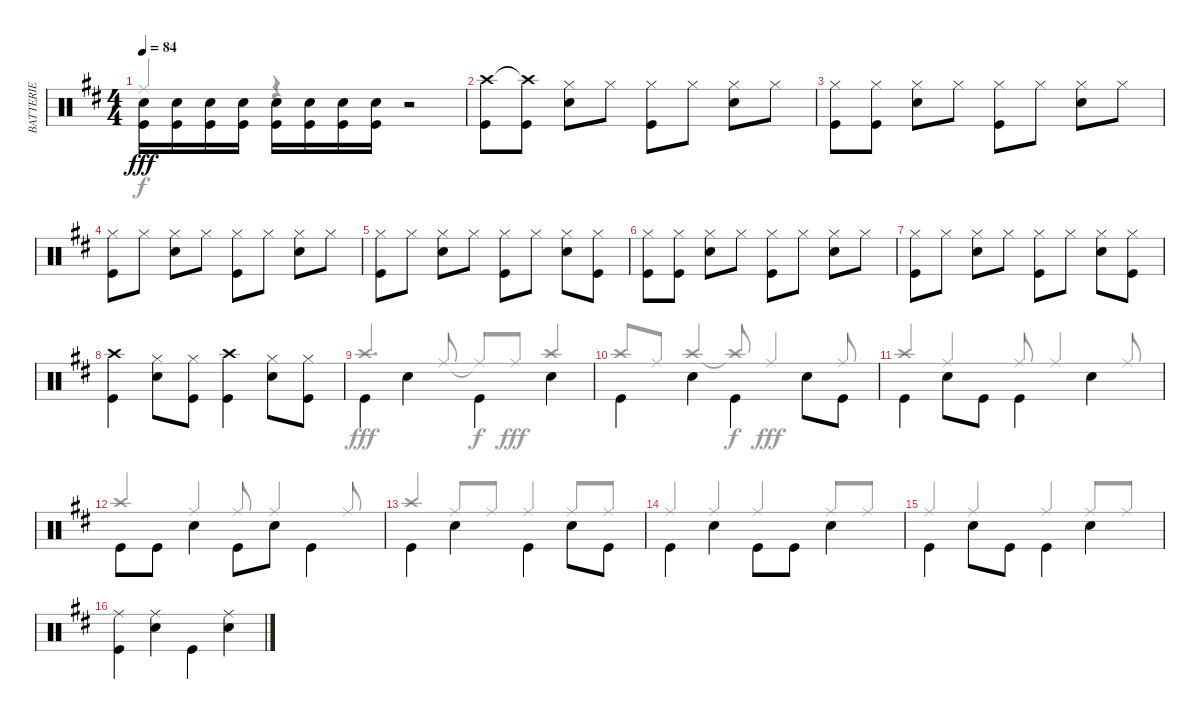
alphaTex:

\track ("BATTERIE" "BATTERIE") {instrument percussion}
\staff {score}
\articulation defaults
\voice
\ts (4 4)
\tempo 84
\clef neutral
\ks d
("Snare (hit) 2" "Kick (hit)").16{dy fff beam Down} ("Snare (hit) 2" "Kick (hit)").16{beam Down} ("Snare (hit) 2" "Kick (hit)").16{beam Down} ("Snare (hit) 2" "Kick (hit)").16{beam Down} ("Snare (hit) 2" "Kick (hit)").16{beam Down} ("Snare (hit) 2" "Kick (hit)").16{beam Down} ("Snare (hit) 2" "Kick (hit)").16{beam Down} ("Snare (hit) 2" "Kick (hit)").16{beam Down} r.2 |
("Crash high (hit)" "Kick (hit)").8 ("Crash high (hit)"{t} "Kick (hit)").8 ("Hi-Hat (closed)" "Snare (hit) 2").8 "Hi-Hat (closed)".8 ("Hi-Hat (closed)" "Kick (hit)").8 "Hi-Hat (closed)".8 ("Hi-Hat (closed)" "Snare (hit) 2").8 "Hi-Hat (closed)".8 |
("Hi-Hat (closed)" "Kick (hit)").8 ("Hi-Hat (closed)" "Kick (hit)").8 ("Hi-Hat (closed)" "Snare (hit) 2").8 "Hi-Hat (closed)".8 ("Hi-Hat (closed)" "Kick (hit)").8 "Hi-Hat (closed)".8 ("Hi-Hat (closed)" "Snare (hit) 2").8 "Hi-Hat (closed)".8 |
("Hi-Hat (closed)" "Kick (hit)").8 "Hi-Hat (closed)".8 ("Hi-Hat (closed)" "Snare (hit) 2").8 "Hi-Hat (closed)".8 ("Hi-Hat (closed)" "Kick (hit)").8 "Hi-Hat (closed)".8 ("Hi-Hat (closed)" "Snare (hit) 2").8 "Hi-Hat (closed)".8 |
("Hi-Hat (closed)" "Kick (hit)").8 "Hi-Hat (closed)".8 ("Hi-Hat (closed)" "Snare (hit) 2").8 "Hi-Hat (closed)".8 ("Hi-Hat (closed)" "Kick (hit)").8 "Hi-Hat (closed)".8 ("Hi-Hat (closed)" "Snare (hit) 2").8 ("Hi-Hat (closed)" "Kick (hit)").8 |
("Hi-Hat (closed)" "Kick (hit)").8 ("Hi-Hat (closed)" "Kick (hit)").8 ("Hi-Hat (closed)" "Snare (hit) 2").8 "Hi-Hat (closed)".8 ("Hi-Hat (closed)" "Kick (hit)").8 "Hi-Hat (closed)".8 ("Hi-Hat (closed)" "Snare (hit) 2").8 "Hi-Hat (closed)".8 |
("Hi-Hat (closed)" "Kick (hit)").8 "Hi-Hat (closed)".8 ("Hi-Hat (closed)" "Snare (hit) 2").8 "Hi-Hat (closed)".8 ("Hi-Hat (closed)" "Kick (hit)").8 "Hi-Hat (closed)".8 ("Hi-Hat (closed)" "Snare (hit) 2").8 ("Hi-Hat (closed)" "Kick (hit)").8 |
("Crash high (hit)" "Kick (hit)").4 ("Hi-Hat (closed)" "Snare (hit) 2").8 ("Hi-Hat (closed)" "Kick (hit)").8 ("Crash high (hit)" "Kick (hit)").4 ("Hi-Hat (closed)" "Snare (hit) 2").8 ("Hi-Hat (closed)" "Kick (hit)").8 |
"Kick (hit)".4{beam Down} "Snare (hit) 2".4{beam Down} "Kick (hit)".4{beam Down} "Snare (hit) 2".4{beam Down} |
"Kick (hit)".4{beam Down} "Snare (hit) 2".4{beam Down} "Kick (hit)".4{beam Down} "Snare (hit) 2".8{beam Down} "Kick (hit)".8{beam Down} |
"Kick (hit)".4{beam Down} "Snare (hit) 2".8{beam Down} "Kick (hit)".8{beam Down} "Kick (hit)".4{beam Down} "Snare (hit) 2".4{beam Down} |
"Kick (hit)".8{beam Down} "Kick (hit)".8{beam Down} "Snare (hit) 2".4{beam Down} "Kick (hit)".8{beam Down} "Snare (hit) 2".8{beam Down} "Kick (hit)".4{beam Down} |
"Kick (hit)".4{beam Down} "Snare (hit) 2".4{beam Down} "Kick (hit)".4{beam Down} "Snare (hit) 2".8{beam Down} "Kick (hit)".8{beam Down} |
"Kick (hit)".4{beam Down} "Snare (hit) 2".4{beam Down} "Kick (hit)".8{beam Down} "Kick (hit)".8{beam Down} "Snare (hit) 2".4{beam Down} |
"Kick (hit)".4{beam Down} "Snare (hit) 2".8{beam Down} "Kick (hit)".8{beam Down} "Kick (hit)".4{beam Down} "Snare (hit) 2".4{beam Down} |
("Ride (middle)" "Kick (hit)").4{beam Down} ("Ride (middle)" "Snare (hit) 2").4 "Kick (hit)".4{beam Down} ("Ride (middle)" "Snare (hit) 2").4
\voice
\clef neutral
\ottava regular
\simile none
\ks d "Ride (middle)"{t}.4{dy f beam Up}
r.4 r.2 |
|
|
|
|
|
|
|
"Crash high (hit)".4{d dy fff beam Up} "Ride (middle)".8{beam Up} "Ride (middle)"{t}.8{dy f beam Up} "Ride (middle)".8{dy fff beam Up} "Crash high (hit)".4{beam Up} |
"Crash high (hit)".8{beam Up} "Ride (middle)".8{beam Up} "Crash high (hit)".4{beam Up} "Crash high (hit)"{t}.8{dy f beam Up} "Ride (middle)".4{dy fff beam Up} "Ride (middle)".8{beam Up} |
"Crash high (hit)".4{beam Up} "Ride (middle)".4{beam Up} "Ride (middle)".8{beam Up} "Ride (middle)".4{beam Up} "Ride (middle)".8{beam Up} |
"Crash high (hit)".4{beam Up} "Ride (middle)".4{beam Up} "Ride (middle)".8{beam Up} "Ride (middle)".4{beam Up} "Ride (middle)".8{beam Up} |
"Crash high (hit)".4{beam Up} "Ride (middle)".8{beam Up} "Ride (middle)".8{beam Up} "Ride (middle)".4{beam Up} "Ride (middle)".8{beam Up} "Ride (middle)".8{beam Up} |
"Ride (middle)".4{beam Up} "Ride (middle)".4{beam Up} "Ride (middle)".4{beam Up} "Ride (middle)".8{beam Up} "Ride (middle)".8{beam Up} |
"Ride (middle)".4{beam Up} "Ride (middle)".4{beam Up} "Ride (middle)".4{beam Up} "Ride (middle)".8{beam Up} "Ride (middle)".8{beam Up} |
